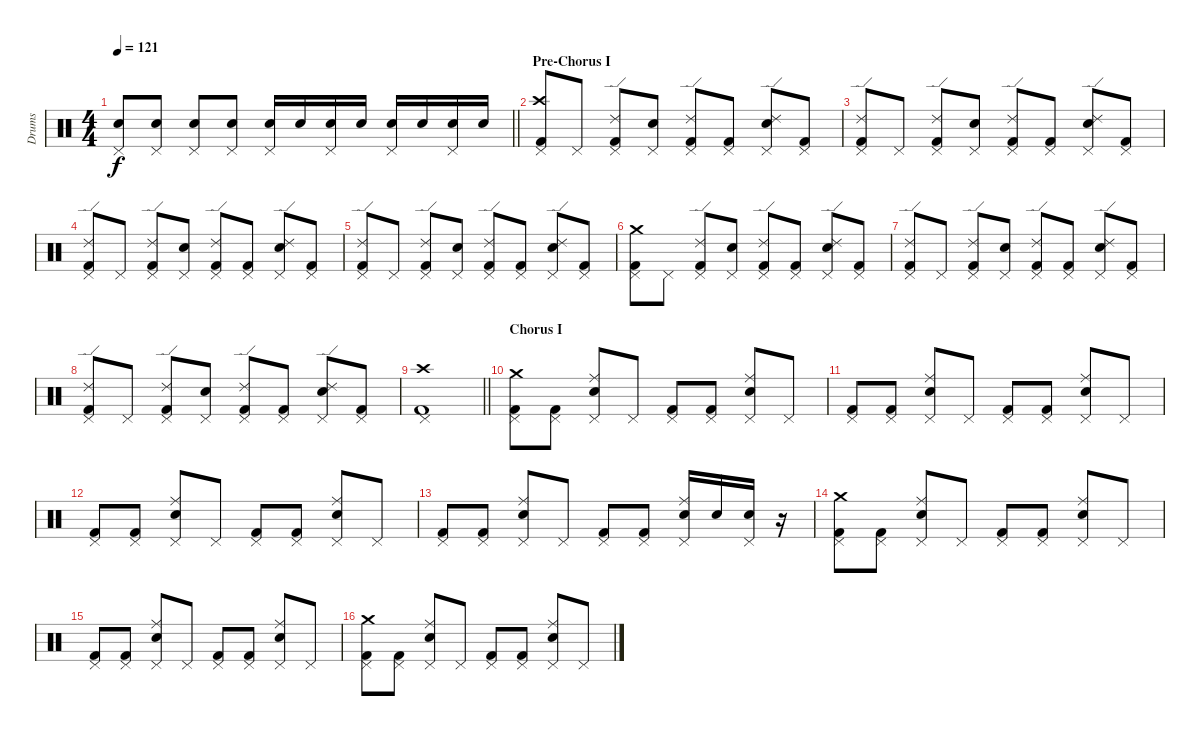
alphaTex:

\track ("Drums" "Drums") {instrument percussion}
\staff {score}
\articulation defaults
\ts (4 4)
\tempo 121
\clef neutral
\barLineRight lightlight
\ks c
("Pedal Hi-Hat (hit)" "Snare (hit) 2").8{dy f} ("Pedal Hi-Hat (hit)" "Snare (hit) 2").8 ("Pedal Hi-Hat (hit)" "Snare (hit) 2").8 ("Pedal Hi-Hat (hit)" "Snare (hit) 2").8 ("Pedal Hi-Hat (hit)" "Snare (hit) 2").16 "Snare (hit) 2".16 ("Pedal Hi-Hat (hit)" "Snare (hit) 2").16 "Snare (hit) 2".16 ("Pedal Hi-Hat (hit)" "Snare (hit) 2").16 "Snare (hit) 2".16 ("Pedal Hi-Hat (hit)" "Snare (hit) 2").16 "Snare (hit) 2".16 |
\section ("" "Pre-Chorus I")
("Pedal Hi-Hat (hit)" "Crash high (hit)" "Kick (hit) 2").8 "Pedal Hi-Hat (hit)".8 ("Pedal Hi-Hat (hit)" "Ride (edge) 2" "Kick (hit) 2").8 ("Pedal Hi-Hat (hit)" "Snare (hit) 2").8 ("Pedal Hi-Hat (hit)" "Ride (edge) 2" "Kick (hit) 2").8 ("Pedal Hi-Hat (hit)" "Kick (hit) 2").8 ("Pedal Hi-Hat (hit)" "Ride (edge) 2" "Snare (hit) 2").8 ("Pedal Hi-Hat (hit)" "Kick (hit) 2").8 |
("Pedal Hi-Hat (hit)" "Ride (edge) 2" "Kick (hit) 2").8 "Pedal Hi-Hat (hit)".8 ("Pedal Hi-Hat (hit)" "Ride (edge) 2" "Kick (hit) 2").8 ("Pedal Hi-Hat (hit)" "Snare (hit) 2").8 ("Pedal Hi-Hat (hit)" "Ride (edge) 2" "Kick (hit) 2").8 ("Pedal Hi-Hat (hit)" "Kick (hit) 2").8 ("Pedal Hi-Hat (hit)" "Ride (edge) 2" "Snare (hit) 2").8 ("Pedal Hi-Hat (hit)" "Kick (hit) 2").8 |
("Pedal Hi-Hat (hit)" "Ride (edge) 2" "Kick (hit) 2").8 "Pedal Hi-Hat (hit)".8 ("Pedal Hi-Hat (hit)" "Ride (edge) 2" "Kick (hit) 2").8 ("Pedal Hi-Hat (hit)" "Snare (hit) 2").8 ("Pedal Hi-Hat (hit)" "Ride (edge) 2" "Kick (hit) 2").8 ("Pedal Hi-Hat (hit)" "Kick (hit) 2").8 ("Pedal Hi-Hat (hit)" "Ride (edge) 2" "Snare (hit) 2").8 ("Pedal Hi-Hat (hit)" "Kick (hit) 2").8 |
("Pedal Hi-Hat (hit)" "Ride (edge) 2" "Kick (hit) 2").8 "Pedal Hi-Hat (hit)".8 ("Pedal Hi-Hat (hit)" "Ride (edge) 2" "Kick (hit) 2").8 ("Pedal Hi-Hat (hit)" "Snare (hit) 2").8 ("Pedal Hi-Hat (hit)" "Ride (edge) 2" "Kick (hit) 2").8 ("Pedal Hi-Hat (hit)" "Kick (hit) 2").8 ("Pedal Hi-Hat (hit)" "Ride (edge) 2" "Snare (hit) 2").8 ("Pedal Hi-Hat (hit)" "Kick (hit) 2").8 |
("Pedal Hi-Hat (hit)" "Crash medium (hit)" "Kick (hit) 2").8 "Pedal Hi-Hat (hit)".8 ("Pedal Hi-Hat (hit)" "Ride (edge) 2" "Kick (hit) 2").8 ("Pedal Hi-Hat (hit)" "Snare (hit) 2").8 ("Pedal Hi-Hat (hit)" "Ride (edge) 2" "Kick (hit) 2").8 ("Pedal Hi-Hat (hit)" "Kick (hit) 2").8 ("Pedal Hi-Hat (hit)" "Ride (edge) 2" "Snare (hit) 2").8 ("Pedal Hi-Hat (hit)" "Kick (hit) 2").8 |
("Pedal Hi-Hat (hit)" "Ride (edge) 2" "Kick (hit) 2").8 "Pedal Hi-Hat (hit)".8 ("Pedal Hi-Hat (hit)" "Ride (edge) 2" "Kick (hit) 2").8 ("Pedal Hi-Hat (hit)" "Snare (hit) 2").8 ("Pedal Hi-Hat (hit)" "Ride (edge) 2" "Kick (hit) 2").8 ("Pedal Hi-Hat (hit)" "Kick (hit) 2").8 ("Pedal Hi-Hat (hit)" "Ride (edge) 2" "Snare (hit) 2").8 ("Pedal Hi-Hat (hit)" "Kick (hit) 2").8 |
("Pedal Hi-Hat (hit)" "Ride (edge) 2" "Kick (hit) 2").8 "Pedal Hi-Hat (hit)".8 ("Pedal Hi-Hat (hit)" "Ride (edge) 2" "Kick (hit) 2").8 ("Pedal Hi-Hat (hit)" "Snare (hit) 2").8 ("Pedal Hi-Hat (hit)" "Ride (edge) 2" "Kick (hit) 2").8 ("Pedal Hi-Hat (hit)" "Kick (hit) 2").8 ("Pedal Hi-Hat (hit)" "Ride (edge) 2" "Snare (hit) 2").8 ("Pedal Hi-Hat (hit)" "Kick (hit) 2").8 |
\barLineRight lightlight
("Pedal Hi-Hat (hit)" "Crash high (hit)" "Kick (hit) 2").1 |
\section ("" "Chorus I")
("Pedal Hi-Hat (hit)" "Crash medium (hit)" "Kick (hit) 2").8 ("Pedal Hi-Hat (hit)" "Kick (hit) 2").8 ("Pedal Hi-Hat (hit)" "Ride (middle)" "Snare (hit) 2").8 "Pedal Hi-Hat (hit)".8 ("Pedal Hi-Hat (hit)" "Kick (hit) 2").8 ("Pedal Hi-Hat (hit)" "Kick (hit) 2").8 ("Pedal Hi-Hat (hit)" "Ride (middle)" "Snare (hit) 2").8 "Pedal Hi-Hat (hit)".8 |
("Pedal Hi-Hat (hit)" "Kick (hit) 2").8 ("Pedal Hi-Hat (hit)" "Kick (hit) 2").8 ("Pedal Hi-Hat (hit)" "Ride (middle)" "Snare (hit) 2").8 "Pedal Hi-Hat (hit)".8 ("Pedal Hi-Hat (hit)" "Kick (hit) 2").8 ("Pedal Hi-Hat (hit)" "Kick (hit) 2").8 ("Pedal Hi-Hat (hit)" "Ride (middle)" "Snare (hit) 2").8 "Pedal Hi-Hat (hit)".8 |
("Pedal Hi-Hat (hit)" "Kick (hit) 2").8 ("Pedal Hi-Hat (hit)" "Kick (hit) 2").8 ("Pedal Hi-Hat (hit)" "Ride (middle)" "Snare (hit) 2").8 "Pedal Hi-Hat (hit)".8 ("Pedal Hi-Hat (hit)" "Kick (hit) 2").8 ("Pedal Hi-Hat (hit)" "Kick (hit) 2").8 ("Pedal Hi-Hat (hit)" "Ride (middle)" "Snare (hit) 2").8 "Pedal Hi-Hat (hit)".8 |
("Pedal Hi-Hat (hit)" "Kick (hit) 2").8 ("Pedal Hi-Hat (hit)" "Kick (hit) 2").8 ("Pedal Hi-Hat (hit)" "Ride (middle)" "Snare (hit) 2").8 "Pedal Hi-Hat (hit)".8 ("Pedal Hi-Hat (hit)" "Kick (hit) 2").8 ("Pedal Hi-Hat (hit)" "Kick (hit) 2").8 ("Pedal Hi-Hat (hit)" "Ride (middle)" "Snare (hit) 2").16 "Snare (hit) 2".16 ("Pedal Hi-Hat (hit)" "Snare (hit) 2").16 r.16 |
("Pedal Hi-Hat (hit)" "Crash medium (hit)" "Kick (hit) 2").8 ("Pedal Hi-Hat (hit)" "Kick (hit) 2").8 ("Pedal Hi-Hat (hit)" "Ride (middle)" "Snare (hit) 2").8 "Pedal Hi-Hat (hit)".8 ("Pedal Hi-Hat (hit)" "Kick (hit) 2").8 ("Pedal Hi-Hat (hit)" "Kick (hit) 2").8 ("Pedal Hi-Hat (hit)" "Ride (middle)" "Snare (hit) 2").8 "Pedal Hi-Hat (hit)".8 |
("Pedal Hi-Hat (hit)" "Kick (hit) 2").8 ("Pedal Hi-Hat (hit)" "Kick (hit) 2").8 ("Pedal Hi-Hat (hit)" "Ride (middle)" "Snare (hit) 2").8 "Pedal Hi-Hat (hit)".8 ("Pedal Hi-Hat (hit)" "Kick (hit) 2").8 ("Pedal Hi-Hat (hit)" "Kick (hit) 2").8 ("Pedal Hi-Hat (hit)" "Ride (middle)" "Snare (hit) 2").8 "Pedal Hi-Hat (hit)".8 |
("Pedal Hi-Hat (hit)" "Crash medium (hit)" "Kick (hit) 2").8 ("Pedal Hi-Hat (hit)" "Kick (hit) 2").8 ("Pedal Hi-Hat (hit)" "Ride (middle)" "Snare (hit) 2").8 "Pedal Hi-Hat (hit)".8 ("Pedal Hi-Hat (hit)" "Kick (hit) 2").8 ("Pedal Hi-Hat (hit)" "Kick (hit) 2").8 ("Pedal Hi-Hat (hit)" "Ride (middle)" "Snare (hit) 2").8 "Pedal Hi-Hat (hit)".8
